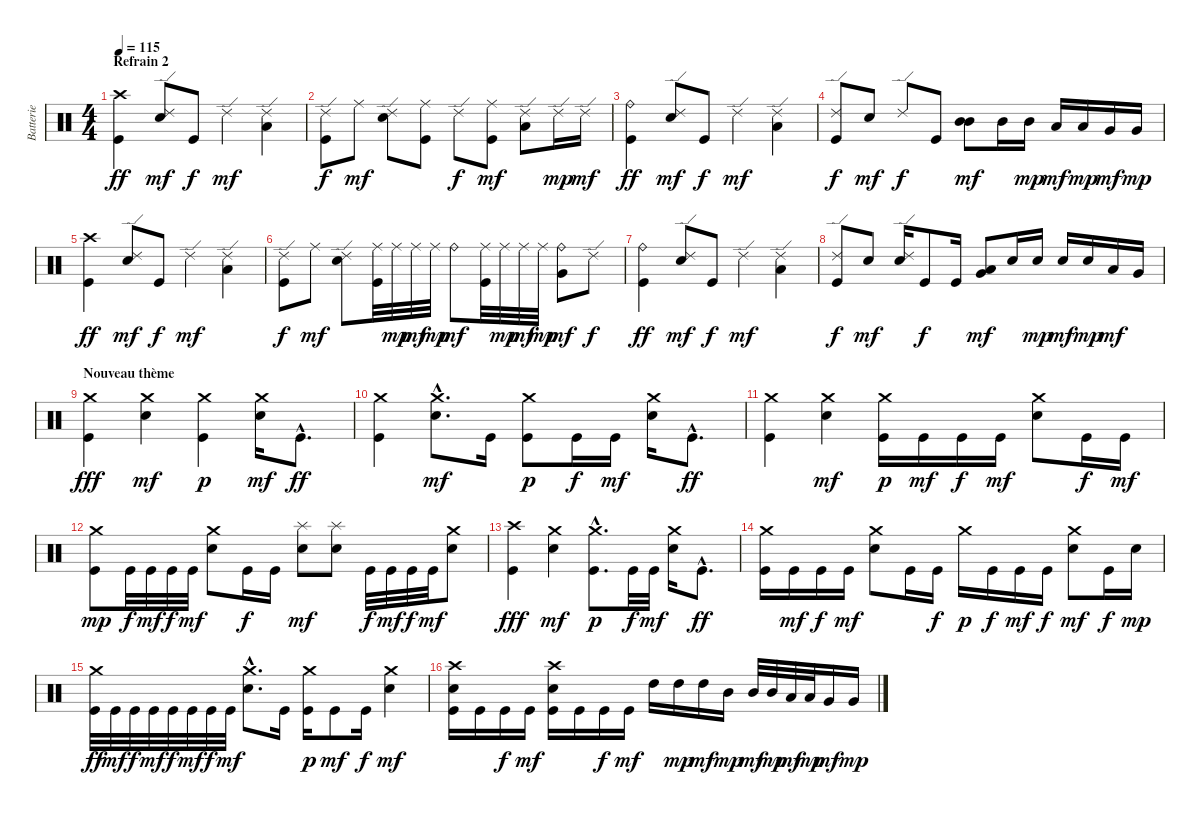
\track ("Batterie" "Batterie") {instrument percussion}
\staff {score}
\articulation defaults
\ts (4 4)
\section ("" "Refrain 2")
\tempo 115
\clef neutral
\ks c
("Crash high (hit)" "Kick (hit)").4{dy ff} ("Ride (edge) 2" "Electric Snare (hit)").8{dy mf} "Kick (hit)".8{dy f} "Ride (edge) 2".4{dy mf} ("Ride (edge) 2" "Low Tom (hit)").4 |
("Ride (edge) 2" "Kick (hit)").8{dy f} "Ride (middle)".8{dy mf} ("Ride (edge) 2" "Electric Snare (hit)").8 ("Ride (middle)" "Kick (hit)").8 "Ride (edge) 2".8{dy f} ("Ride (middle)" "Kick (hit)").8{dy mf} ("Ride (edge) 2" "Low Tom (hit)").8 "Ride (edge) 2".16{dy mp} "Ride (edge) 2".16{dy mf} |
("Ride (bell)" "Kick (hit)").4{dy ff} ("Ride (edge) 2" "Electric Snare (hit)").8{dy mf} "Kick (hit)".8{dy f} "Ride (edge) 2".4{dy mf} ("Ride (edge) 2" "Low Tom (hit)").4 |
("Ride (edge) 2" "Kick (hit)").8{dy f} "Electric Snare (hit)".8{dy mf} "Ride (edge) 2".8{dy f} "Kick (hit)".8 ("Mid Tom (hit)" "Mid Tom (hit)").8{bd 120 dy mf} "Mid Tom (hit)".16 "Mid Tom (hit)".16{dy mp} "Low Tom (hit)".16{dy mf} "Low Tom (hit)".16{dy mp} "Very Low Tom (hit)".16{dy mf} "Very Low Tom (hit)".16{dy mp} |
("Crash high (hit)" "Kick (hit)").4{dy ff} ("Ride (edge) 2" "Electric Snare (hit)").8{dy mf} "Kick (hit)".8{dy f} "Ride (edge) 2".4{dy mf} ("Ride (edge) 2" "Low Tom (hit)").4 |
("Ride (edge) 2" "Kick (hit)").8{dy f} "Ride (middle)".8{dy mf} ("Ride (edge) 2" "Electric Snare (hit)").8 ("Ride (middle)" "Kick (hit)").32 "Ride (middle)".32{dy mp} "Ride (middle)".32{dy mf} "Ride (middle)".32{dy mp} "Ride (bell)".8{dy mf} ("Ride (middle)" "Kick (hit)").32 "Ride (middle)".32{dy mp} "Ride (middle)".32{dy mf} "Ride (middle)".32{dy mp} ("Ride (bell)" "Very Low Tom (hit)").8{dy mf} "Ride (edge) 2".8{dy f} |
("Ride (bell)" "Kick (hit)").4{dy ff} ("Ride (edge) 2" "Electric Snare (hit)").8{dy mf} "Kick (hit)".8{dy f} "Ride (edge) 2".4{dy mf} ("Ride (edge) 2" "Low Tom (hit)").4 |
("Ride (edge) 2" "Kick (hit)").8{dy f} "Electric Snare (hit)".8{dy mf} ("Ride (edge) 2" "Electric Snare (hit)").16 "Kick (hit)".8{dy f} "Kick (hit)".16 ("Low Tom (hit)" "Very Low Tom (hit)").8{bd 60 dy mf} "Electric Snare (hit)".16 "Electric Snare (hit)".16{dy mp} "Electric Snare (hit)".16{dy mf} "Electric Snare (hit)".16{dy mp} "Low Tom (hit)".16{dy mf} "Very Low Tom (hit)".16 |
\section ("" "Nouveau thème")
("Crash medium (hit)" "Kick (hit)").4{dy fff} ("Crash medium (hit)" "Electric Snare (hit)").4{dy mf} ("Crash medium (hit)" "Kick (hit)").4{dy p} ("Crash medium (hit)" "Electric Snare (hit)").16{dy mf} "Kick (hit)"{hac}.8{d dy ff} |
("Crash medium (hit)" "Kick (hit)").4 ("Crash medium (hit)"{hac} "Electric Snare (hit)"{hac}).8{d dy mf} "Kick (hit)".16 ("Crash medium (hit)" "Kick (hit)").8{dy p} "Kick (hit)".16{dy f} "Kick (hit)".16{dy mf} ("Crash medium (hit)" "Electric Snare (hit)").16 "Kick (hit)"{hac}.8{d dy ff} |
("Crash medium (hit)" "Kick (hit)").4 ("Crash medium (hit)" "Electric Snare (hit)").4{dy mf} ("Crash medium (hit)" "Kick (hit)").16{dy p} "Kick (hit)".16{dy mf} "Kick (hit)".16{dy f} "Kick (hit)".16{dy mf} ("Crash medium (hit)" "Electric Snare (hit)").8 "Kick (hit)".16{dy f} "Kick (hit)".16{dy mf} |
("Crash medium (hit)" "Kick (hit)").8{dy mp} "Kick (hit)".32{dy f} "Kick (hit)".32{dy mf} "Kick (hit)".32{dy f} "Kick (hit)".32{dy mf} ("Crash medium (hit)" "Electric Snare (hit)").8 "Kick (hit)".16{dy f} "Kick (hit)".16 ("Splash (hit)" "Electric Snare (hit)").8{dy mf} ("Splash (hit)" "Electric Snare (hit)").8 "Kick (hit)".32{dy f} "Kick (hit)".32{dy mf} "Kick (hit)".32{dy f} "Kick (hit)".32{dy mf} ("Crash medium (hit)" "Electric Snare (hit)").8 |
("Crash high (hit)" "Kick (hit)").4{dy fff} ("Crash medium (hit)" "Electric Snare (hit)").4{dy mf} ("Crash medium (hit)"{hac} "Kick (hit)"{hac}).8{d dy p} "Kick (hit)".32{dy f} "Kick (hit)".32{dy mf} ("Crash medium (hit)" "Electric Snare (hit)").16 "Kick (hit)"{hac}.8{d dy ff} |
("Crash medium (hit)" "Kick (hit)").16 "Kick (hit)".16{dy mf} "Kick (hit)".16{dy f} "Kick (hit)".16{dy mf} ("Crash medium (hit)" "Electric Snare (hit)").8 "Kick (hit)".16 "Kick (hit)".16{dy f} "Crash medium (hit)".16{dy p} "Kick (hit)".16{dy f} "Kick (hit)".16{dy mf} "Kick (hit)".16{dy f} ("Crash medium (hit)" "Electric Snare (hit)").8{dy mf} "Kick (hit)".16{dy f} "Electric Snare (hit)".16{dy mp} |
("Crash medium (hit)" "Kick (hit)").32{dy ff} "Kick (hit)".32{dy mf} "Kick (hit)".32{dy f} "Kick (hit)".32{dy mf} "Kick (hit)".32{dy f} "Kick (hit)".32{dy mf} "Kick (hit)".32{dy f} "Kick (hit)".32{dy mf} ("Crash medium (hit)"{hac} "Electric Snare (hit)"{hac}).8{d} "Kick (hit)".16 ("Crash medium (hit)" "Kick (hit)").16{dy p} "Kick (hit)".8{dy mf} "Kick (hit)".16{dy f} ("Crash medium (hit)" "Electric Snare (hit)").4{dy mf} |
("Crash high (hit)" "Electric Snare (hit)" "Kick (hit)").16 "Kick (hit)".16 "Kick (hit)".16{dy f} "Kick (hit)".16{dy mf} ("Crash high (hit)" "Electric Snare (hit)" "Kick (hit)").16 "Kick (hit)".16 "Kick (hit)".16{dy f} "Kick (hit)".16{dy mf} "High Tom (hit)".16 "High Tom (hit)".16{dy mp} "High Tom (hit)".16{dy mf} "Mid Tom (hit)".16{dy mp} "Mid Tom (hit)".32{dy mf} "Mid Tom (hit)".32{dy mp} "Low Tom (hit)".32{dy mf} "Low Tom (hit)".32{dy mp} "Very Low Tom (hit)".16{dy mf} "Very Low Tom (hit)".16{dy mp}
